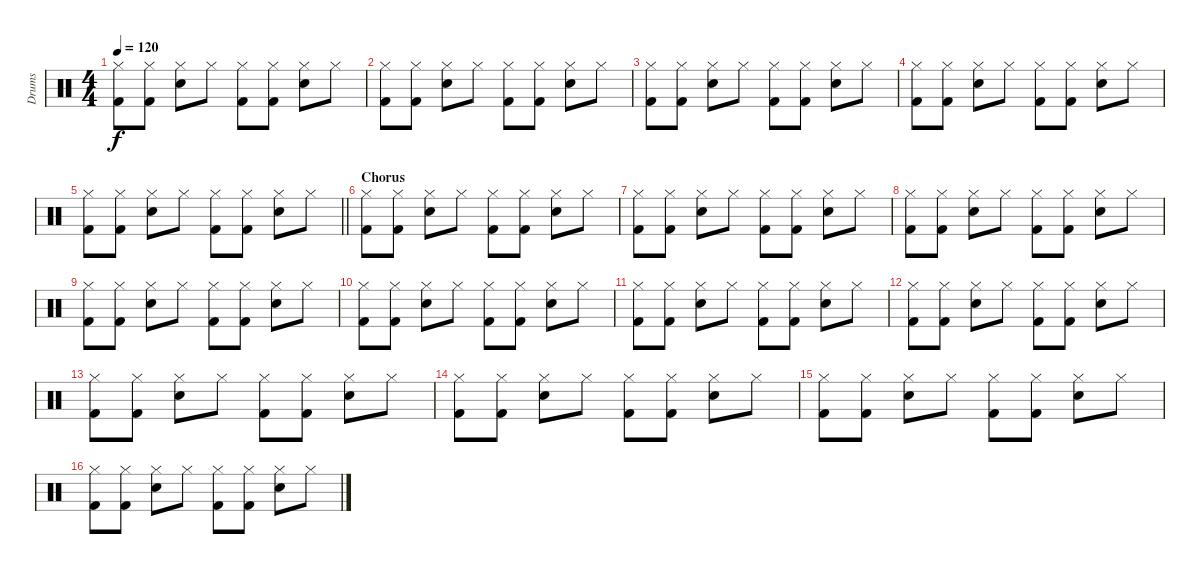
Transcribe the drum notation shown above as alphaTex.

\track ("Drums" "Drums") {instrument percussion}
\staff {score}
\articulation defaults
\ts (4 4)
\tempo 120
\clef neutral
\ks c
("Kick (hit) 2" "Hi-Hat (closed)").8{dy f} ("Kick (hit) 2" "Hi-Hat (closed)").8 ("Electric Snare (hit)" "Hi-Hat (closed)").8 "Hi-Hat (closed)".8 ("Kick (hit) 2" "Hi-Hat (closed)").8 ("Kick (hit) 2" "Hi-Hat (closed)").8 ("Electric Snare (hit)" "Hi-Hat (closed)").8 "Hi-Hat (closed)".8 |
("Kick (hit) 2" "Hi-Hat (closed)").8 ("Kick (hit) 2" "Hi-Hat (closed)").8 ("Electric Snare (hit)" "Hi-Hat (closed)").8 "Hi-Hat (closed)".8 ("Kick (hit) 2" "Hi-Hat (closed)").8 ("Kick (hit) 2" "Hi-Hat (closed)").8 ("Electric Snare (hit)" "Hi-Hat (closed)").8 "Hi-Hat (closed)".8 |
("Kick (hit) 2" "Hi-Hat (closed)").8 ("Kick (hit) 2" "Hi-Hat (closed)").8 ("Electric Snare (hit)" "Hi-Hat (closed)").8 "Hi-Hat (closed)".8 ("Kick (hit) 2" "Hi-Hat (closed)").8 ("Kick (hit) 2" "Hi-Hat (closed)").8 ("Electric Snare (hit)" "Hi-Hat (closed)").8 "Hi-Hat (closed)".8 |
("Kick (hit) 2" "Hi-Hat (closed)").8 ("Kick (hit) 2" "Hi-Hat (closed)").8 ("Electric Snare (hit)" "Hi-Hat (closed)").8 "Hi-Hat (closed)".8 ("Kick (hit) 2" "Hi-Hat (closed)").8 ("Kick (hit) 2" "Hi-Hat (closed)").8 ("Electric Snare (hit)" "Hi-Hat (closed)").8 "Hi-Hat (closed)".8 |
\barLineRight lightlight
("Kick (hit) 2" "Hi-Hat (closed)").8 ("Kick (hit) 2" "Hi-Hat (closed)").8 ("Electric Snare (hit)" "Hi-Hat (closed)").8 "Hi-Hat (closed)".8 ("Kick (hit) 2" "Hi-Hat (closed)").8 ("Kick (hit) 2" "Hi-Hat (closed)").8 ("Electric Snare (hit)" "Hi-Hat (closed)").8 "Hi-Hat (closed)".8 |
\section ("" "Chorus")
("Kick (hit) 2" "Hi-Hat (closed)").8 ("Kick (hit) 2" "Hi-Hat (closed)").8 ("Electric Snare (hit)" "Hi-Hat (closed)").8 "Hi-Hat (closed)".8 ("Kick (hit) 2" "Hi-Hat (closed)").8 ("Kick (hit) 2" "Hi-Hat (closed)").8 ("Electric Snare (hit)" "Hi-Hat (closed)").8 "Hi-Hat (closed)".8 |
("Kick (hit) 2" "Hi-Hat (closed)").8 ("Kick (hit) 2" "Hi-Hat (closed)").8 ("Electric Snare (hit)" "Hi-Hat (closed)").8 "Hi-Hat (closed)".8 ("Kick (hit) 2" "Hi-Hat (closed)").8 ("Kick (hit) 2" "Hi-Hat (closed)").8 ("Electric Snare (hit)" "Hi-Hat (closed)").8 "Hi-Hat (closed)".8 |
("Kick (hit) 2" "Hi-Hat (closed)").8 ("Kick (hit) 2" "Hi-Hat (closed)").8 ("Electric Snare (hit)" "Hi-Hat (closed)").8 "Hi-Hat (closed)".8 ("Kick (hit) 2" "Hi-Hat (closed)").8 ("Kick (hit) 2" "Hi-Hat (closed)").8 ("Electric Snare (hit)" "Hi-Hat (closed)").8 "Hi-Hat (closed)".8 |
("Kick (hit) 2" "Hi-Hat (closed)").8 ("Kick (hit) 2" "Hi-Hat (closed)").8 ("Electric Snare (hit)" "Hi-Hat (closed)").8 "Hi-Hat (closed)".8 ("Kick (hit) 2" "Hi-Hat (closed)").8 ("Kick (hit) 2" "Hi-Hat (closed)").8 ("Electric Snare (hit)" "Hi-Hat (closed)").8 "Hi-Hat (closed)".8 |
("Kick (hit) 2" "Hi-Hat (closed)").8 ("Kick (hit) 2" "Hi-Hat (closed)").8 ("Electric Snare (hit)" "Hi-Hat (closed)").8 "Hi-Hat (closed)".8 ("Kick (hit) 2" "Hi-Hat (closed)").8 ("Kick (hit) 2" "Hi-Hat (closed)").8 ("Electric Snare (hit)" "Hi-Hat (closed)").8 "Hi-Hat (closed)".8 |
("Kick (hit) 2" "Hi-Hat (closed)").8 ("Kick (hit) 2" "Hi-Hat (closed)").8 ("Electric Snare (hit)" "Hi-Hat (closed)").8 "Hi-Hat (closed)".8 ("Kick (hit) 2" "Hi-Hat (closed)").8 ("Kick (hit) 2" "Hi-Hat (closed)").8 ("Electric Snare (hit)" "Hi-Hat (closed)").8 "Hi-Hat (closed)".8 |
("Kick (hit) 2" "Hi-Hat (closed)").8 ("Kick (hit) 2" "Hi-Hat (closed)").8 ("Electric Snare (hit)" "Hi-Hat (closed)").8 "Hi-Hat (closed)".8 ("Kick (hit) 2" "Hi-Hat (closed)").8 ("Kick (hit) 2" "Hi-Hat (closed)").8 ("Electric Snare (hit)" "Hi-Hat (closed)").8 "Hi-Hat (closed)".8 |
("Kick (hit) 2" "Hi-Hat (closed)").8 ("Kick (hit) 2" "Hi-Hat (closed)").8 ("Electric Snare (hit)" "Hi-Hat (closed)").8 "Hi-Hat (closed)".8 ("Kick (hit) 2" "Hi-Hat (closed)").8 ("Kick (hit) 2" "Hi-Hat (closed)").8 ("Electric Snare (hit)" "Hi-Hat (closed)").8 "Hi-Hat (closed)".8 |
("Kick (hit) 2" "Hi-Hat (closed)").8 ("Kick (hit) 2" "Hi-Hat (closed)").8 ("Electric Snare (hit)" "Hi-Hat (closed)").8 "Hi-Hat (closed)".8 ("Kick (hit) 2" "Hi-Hat (closed)").8 ("Kick (hit) 2" "Hi-Hat (closed)").8 ("Electric Snare (hit)" "Hi-Hat (closed)").8 "Hi-Hat (closed)".8 |
("Kick (hit) 2" "Hi-Hat (closed)").8 ("Kick (hit) 2" "Hi-Hat (closed)").8 ("Electric Snare (hit)" "Hi-Hat (closed)").8 "Hi-Hat (closed)".8 ("Kick (hit) 2" "Hi-Hat (closed)").8 ("Kick (hit) 2" "Hi-Hat (closed)").8 ("Electric Snare (hit)" "Hi-Hat (closed)").8 "Hi-Hat (closed)".8 |
("Kick (hit) 2" "Hi-Hat (closed)").8 ("Kick (hit) 2" "Hi-Hat (closed)").8 ("Electric Snare (hit)" "Hi-Hat (closed)").8 "Hi-Hat (closed)".8 ("Kick (hit) 2" "Hi-Hat (closed)").8 ("Kick (hit) 2" "Hi-Hat (closed)").8 ("Electric Snare (hit)" "Hi-Hat (closed)").8 "Hi-Hat (closed)".8
